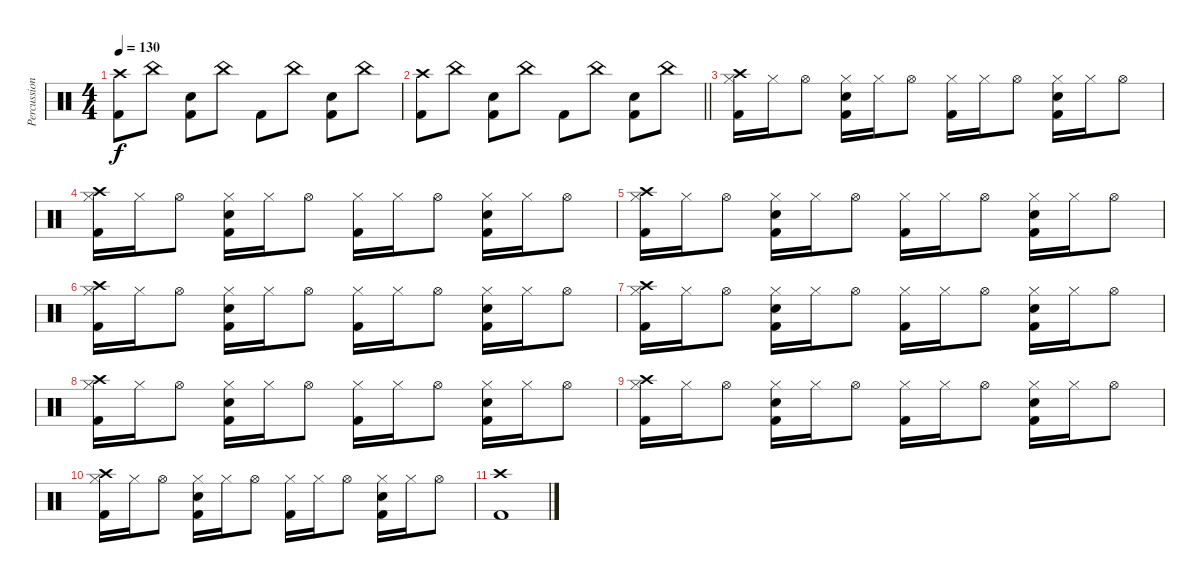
\track ("Percussions" "Percussion") {instrument percussion}
\staff {score}
\articulation defaults
\ts (4 4)
\tempo 130
\clef neutral
\ks c
("Crash high (hit)" "Kick (hit) 2").8{dy f} "China (hit)".8 ("Electric Snare (hit)" "Kick (hit) 2").8 "China (hit)".8 "Kick (hit) 2".8 "China (hit)".8 ("Electric Snare (hit)" "Kick (hit) 2").8 "China (hit)".8 |
\barLineRight lightlight
("Crash high (hit)" "Kick (hit) 2").8 "China (hit)".8 ("Electric Snare (hit)" "Kick (hit) 2").8 "China (hit)".8 "Kick (hit) 2".8 "China (hit)".8 ("Electric Snare (hit)" "Kick (hit) 2").8 "China (hit)".8 |
\section ("" "")
("Crash high (hit)" "Hi-Hat (closed)" "Kick (hit) 2").16 "Hi-Hat (closed)".16 "Hi-Hat (open)".8 ("Hi-Hat (closed)" "Electric Snare (hit)" "Kick (hit) 2").16 "Hi-Hat (closed)".16 "Hi-Hat (open)".8 ("Hi-Hat (closed)" "Kick (hit) 2").16 "Hi-Hat (closed)".16 "Hi-Hat (open)".8 ("Hi-Hat (closed)" "Electric Snare (hit)" "Kick (hit) 2").16 "Hi-Hat (closed)".16 "Hi-Hat (open)".8 |
("Crash high (hit)" "Hi-Hat (closed)" "Kick (hit) 2").16 "Hi-Hat (closed)".16 "Hi-Hat (open)".8 ("Hi-Hat (closed)" "Electric Snare (hit)" "Kick (hit) 2").16 "Hi-Hat (closed)".16 "Hi-Hat (open)".8 ("Hi-Hat (closed)" "Kick (hit) 2").16 "Hi-Hat (closed)".16 "Hi-Hat (open)".8 ("Hi-Hat (closed)" "Electric Snare (hit)" "Kick (hit) 2").16 "Hi-Hat (closed)".16 "Hi-Hat (open)".8 |
("Crash high (hit)" "Hi-Hat (closed)" "Kick (hit) 2").16 "Hi-Hat (closed)".16 "Hi-Hat (open)".8 ("Hi-Hat (closed)" "Electric Snare (hit)" "Kick (hit) 2").16 "Hi-Hat (closed)".16 "Hi-Hat (open)".8 ("Hi-Hat (closed)" "Kick (hit) 2").16 "Hi-Hat (closed)".16 "Hi-Hat (open)".8 ("Hi-Hat (closed)" "Electric Snare (hit)" "Kick (hit) 2").16 "Hi-Hat (closed)".16 "Hi-Hat (open)".8 |
("Crash high (hit)" "Hi-Hat (closed)" "Kick (hit) 2").16 "Hi-Hat (closed)".16 "Hi-Hat (open)".8 ("Hi-Hat (closed)" "Electric Snare (hit)" "Kick (hit) 2").16 "Hi-Hat (closed)".16 "Hi-Hat (open)".8 ("Hi-Hat (closed)" "Kick (hit) 2").16 "Hi-Hat (closed)".16 "Hi-Hat (open)".8 ("Hi-Hat (closed)" "Electric Snare (hit)" "Kick (hit) 2").16 "Hi-Hat (closed)".16 "Hi-Hat (open)".8 |
("Crash high (hit)" "Hi-Hat (closed)" "Kick (hit) 2").16 "Hi-Hat (closed)".16 "Hi-Hat (open)".8 ("Hi-Hat (closed)" "Electric Snare (hit)" "Kick (hit) 2").16 "Hi-Hat (closed)".16 "Hi-Hat (open)".8 ("Hi-Hat (closed)" "Kick (hit) 2").16 "Hi-Hat (closed)".16 "Hi-Hat (open)".8 ("Hi-Hat (closed)" "Electric Snare (hit)" "Kick (hit) 2").16 "Hi-Hat (closed)".16 "Hi-Hat (open)".8 |
("Crash high (hit)" "Hi-Hat (closed)" "Kick (hit) 2").16 "Hi-Hat (closed)".16 "Hi-Hat (open)".8 ("Hi-Hat (closed)" "Electric Snare (hit)" "Kick (hit) 2").16 "Hi-Hat (closed)".16 "Hi-Hat (open)".8 ("Hi-Hat (closed)" "Kick (hit) 2").16 "Hi-Hat (closed)".16 "Hi-Hat (open)".8 ("Hi-Hat (closed)" "Electric Snare (hit)" "Kick (hit) 2").16 "Hi-Hat (closed)".16 "Hi-Hat (open)".8 |
("Crash high (hit)" "Hi-Hat (closed)" "Kick (hit) 2").16 "Hi-Hat (closed)".16 "Hi-Hat (open)".8 ("Hi-Hat (closed)" "Electric Snare (hit)" "Kick (hit) 2").16 "Hi-Hat (closed)".16 "Hi-Hat (open)".8 ("Hi-Hat (closed)" "Kick (hit) 2").16 "Hi-Hat (closed)".16 "Hi-Hat (open)".8 ("Hi-Hat (closed)" "Electric Snare (hit)" "Kick (hit) 2").16 "Hi-Hat (closed)".16 "Hi-Hat (open)".8 |
("Crash high (hit)" "Hi-Hat (closed)" "Kick (hit) 2").16 "Hi-Hat (closed)".16 "Hi-Hat (open)".8 ("Hi-Hat (closed)" "Electric Snare (hit)" "Kick (hit) 2").16 "Hi-Hat (closed)".16 "Hi-Hat (open)".8 ("Hi-Hat (closed)" "Kick (hit) 2").16 "Hi-Hat (closed)".16 "Hi-Hat (open)".8 ("Hi-Hat (closed)" "Electric Snare (hit)" "Kick (hit) 2").16 "Hi-Hat (closed)".16 "Hi-Hat (open)".8 |
("Crash high (hit)" "Kick (hit) 2").1
